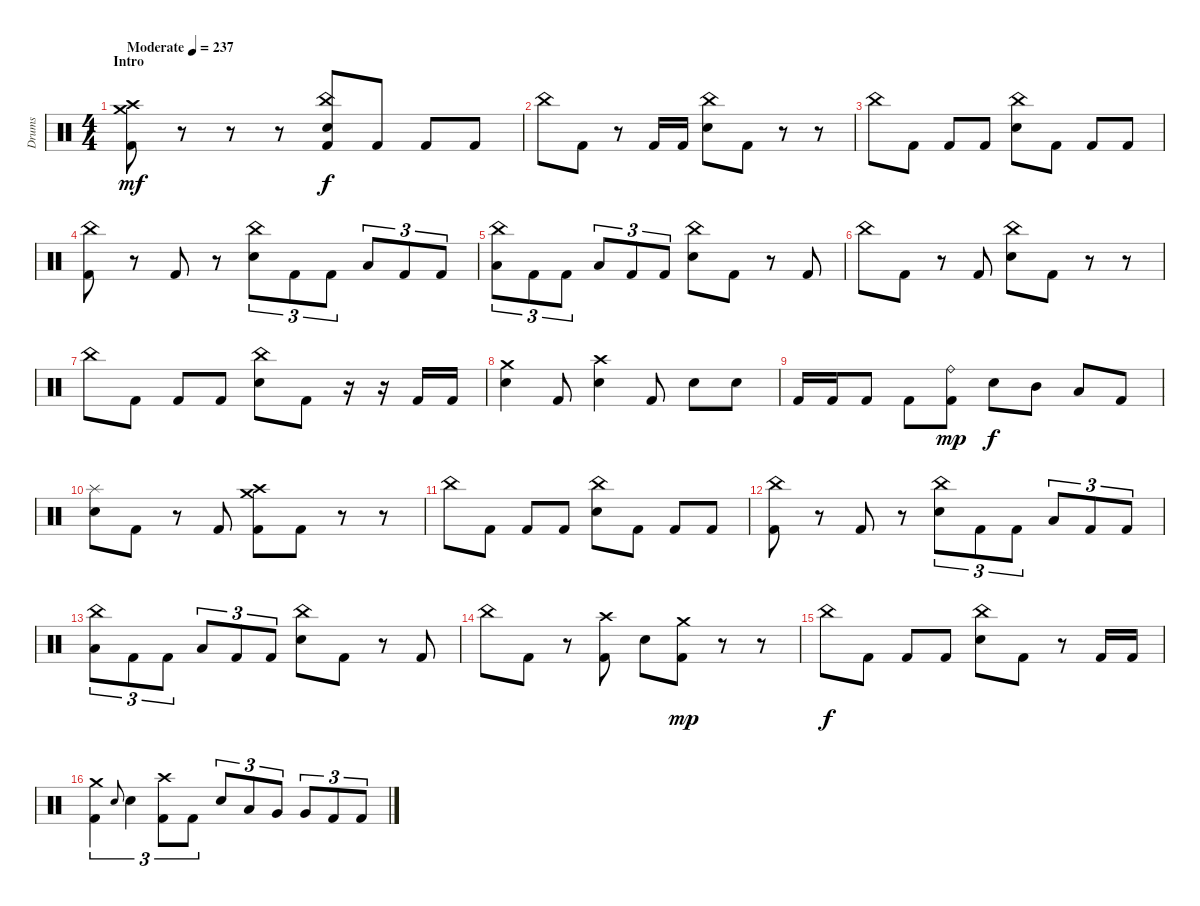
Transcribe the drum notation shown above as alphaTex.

\track ("Drums" "Drums") {instrument percussion}
\staff {score}
\articulation defaults
\ts (4 4)
\section ("" "Intro")
\tempo (237 "Moderate")
\clef neutral
\ks c
("Crash high (hit)" "Crash medium (hit)" "Kick (hit) 2").8{dy mf} r.8 r.8 r.8 ("China (hit)" "Electric Snare (hit)" "Kick (hit) 2").8{dy f} "Kick (hit) 2".8 "Kick (hit) 2".8 "Kick (hit) 2".8 |
"China (hit)".8 "Kick (hit) 2".8 r.8 "Kick (hit) 2".16 "Kick (hit) 2".16 ("China (hit)" "Electric Snare (hit)").8 "Kick (hit) 2".8 r.8 r.8 |
"China (hit)".8 "Kick (hit) 2".8 "Kick (hit) 2".8 "Kick (hit) 2".8 ("China (hit)" "Electric Snare (hit)").8 "Kick (hit) 2".8 "Kick (hit) 2".8 "Kick (hit) 2".8 |
("China (hit)" "Kick (hit) 2").8 r.8 "Kick (hit) 2".8 r.8 ("China (hit)" "Electric Snare (hit)").8{tu (3 2)} "Kick (hit) 2".8{tu (3 2)} "Kick (hit) 2".8{tu (3 2)} "Low Floor Tom (hit)".8{tu (3 2)} "Kick (hit) 2".8{tu (3 2)} "Kick (hit) 2".8{tu (3 2)} |
("China (hit)" "Low Floor Tom (hit)").8{tu (3 2)} "Kick (hit) 2".8{tu (3 2)} "Kick (hit) 2".8{tu (3 2)} "Low Floor Tom (hit)".8{tu (3 2)} "Kick (hit) 2".8{tu (3 2)} "Kick (hit) 2".8{tu (3 2)} ("China (hit)" "Electric Snare (hit)").8 "Kick (hit) 2".8 r.8 "Kick (hit) 2".8 |
"China (hit)".8 "Kick (hit) 2".8 r.8 "Kick (hit) 2".8 ("China (hit)" "Electric Snare (hit)").8 "Kick (hit) 2".8 r.8 r.8 |
"China (hit)".8 "Kick (hit) 2".8 "Kick (hit) 2".8 "Kick (hit) 2".8 ("China (hit)" "Electric Snare (hit)").8 "Kick (hit) 2".8 r.16 r.16 "Kick (hit) 2".16 "Kick (hit) 2".16 |
("Crash medium (hit)" "Electric Snare (hit)").4 "Kick (hit) 2".8 ("Crash high (hit)" "Electric Snare (hit)").4 "Kick (hit) 2".8 "Electric Snare (hit)".8 "Electric Snare (hit)".8 |
"Kick (hit) 2".16 "Kick (hit) 2".16 "Kick (hit) 2".8 "Kick (hit) 2".8 ("Ride (bell)" "Kick (hit) 2").8{dy mp} "Electric Snare (hit)".8{dy f} "Mid Tom (hit)".8 "Low Tom (hit)".8 "Kick (hit) 2".8 |
("Splash (hit)" "Electric Snare (hit)").8 "Kick (hit) 2".8 r.8 "Kick (hit) 2".8 ("Crash medium (hit)" "Crash high (hit)" "Kick (hit) 2").8 "Kick (hit) 2".8 r.8 r.8 |
"China (hit)".8 "Kick (hit) 2".8 "Kick (hit) 2".8 "Kick (hit) 2".8 ("China (hit)" "Electric Snare (hit)").8 "Kick (hit) 2".8 "Kick (hit) 2".8 "Kick (hit) 2".8 |
("China (hit)" "Kick (hit) 2").8 r.8 "Kick (hit) 2".8 r.8 ("China (hit)" "Electric Snare (hit)").8{tu (3 2)} "Kick (hit) 2".8{tu (3 2)} "Kick (hit) 2".8{tu (3 2)} "Low Floor Tom (hit)".8{tu (3 2)} "Kick (hit) 2".8{tu (3 2)} "Kick (hit) 2".8{tu (3 2)} |
("China (hit)" "Low Floor Tom (hit)").8{tu (3 2)} "Kick (hit) 2".8{tu (3 2)} "Kick (hit) 2".8{tu (3 2)} "Low Floor Tom (hit)".8{tu (3 2)} "Kick (hit) 2".8{tu (3 2)} "Kick (hit) 2".8{tu (3 2)} ("China (hit)" "Electric Snare (hit)").8 "Kick (hit) 2".8 r.8 "Kick (hit) 2".8 |
"China (hit)".8 "Kick (hit) 2".8 r.8 ("Crash high (hit)" "Kick (hit) 2").8 "Electric Snare (hit)".8 ("Crash medium (hit)" "Kick (hit) 2").8{dy mp} r.8 r.8 |
"China (hit)".8{dy f} "Kick (hit) 2".8 "Kick (hit) 2".8 "Kick (hit) 2".8 ("China (hit)" "Electric Snare (hit)").8 "Kick (hit) 2".8 r.8 "Kick (hit) 2".16 "Kick (hit) 2".16 |
("Crash medium (hit)" "Kick (hit) 2").4{tu (3 2)} "Electric Snare (hit)".8{gr onbeat} "Electric Snare (hit)".4{tu (3 2)} ("Crash high (hit)" "Kick (hit) 2").8{tu (3 2)} "Kick (hit) 2".8{tu (3 2)} "Electric Snare (hit)".8{tu (3 2)} "Low Tom (hit)".8{tu (3 2)} "Very Low Tom (hit)".8{tu (3 2)} "Very Low Tom (hit)".8{tu (3 2)} "Kick (hit) 2".8{tu (3 2)} "Kick (hit) 2".8{tu (3 2)}
